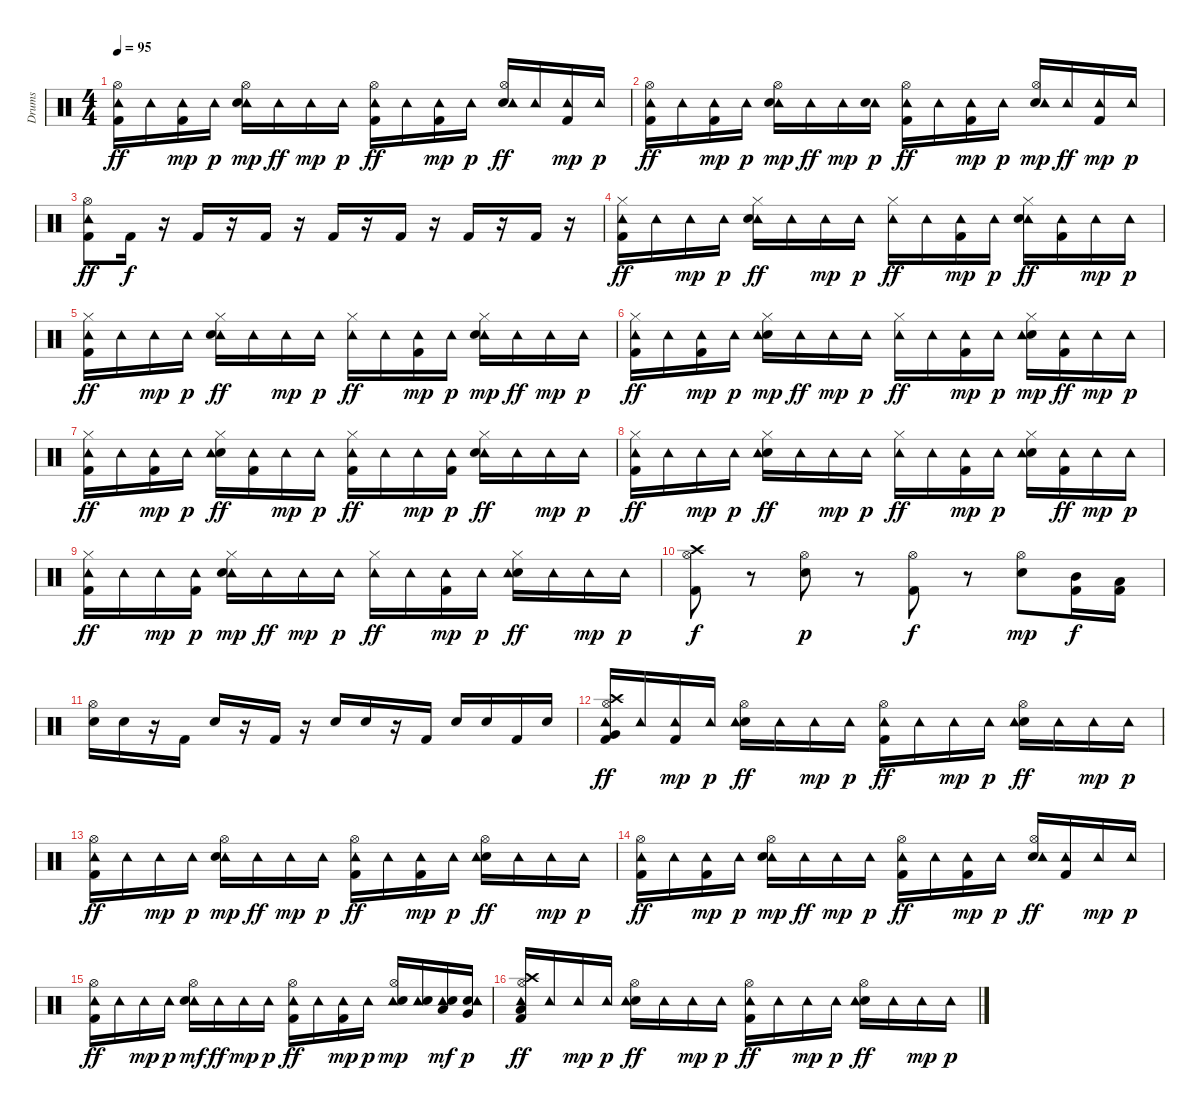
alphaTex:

\track ("Drums" "Drums") {instrument percussion}
\staff {score}
\articulation defaults
\ts (4 4)
\tempo 95
\clef neutral
\ks c
("Kick (hit) 2" "Tambourine (hit)" "Hi-Hat (open)").16{dy ff} "Tambourine (hit)".16 ("Tambourine (hit)" "Kick (hit) 2").16{dy mp} "Tambourine (hit)".16{dy p} ("Tambourine (hit)" "Hi-Hat (open)" "Snare (hit) 2").16{dy mp} "Tambourine (hit)".16{dy ff} "Tambourine (hit)".16{dy mp} "Tambourine (hit)".16{dy p} ("Tambourine (hit)" "Hi-Hat (open)" "Kick (hit) 2").16{dy ff} "Tambourine (hit)".16 ("Kick (hit) 2" "Tambourine (hit)").16{dy mp} "Tambourine (hit)".16{dy p} ("Snare (hit) 2" "Hi-Hat (open)" "Tambourine (hit)").16{dy ff} "Tambourine (hit)".16 ("Tambourine (hit)" "Kick (hit) 2").16{dy mp} "Tambourine (hit)".16{dy p} |
("Kick (hit) 2" "Hi-Hat (open)" "Tambourine (hit)").16{dy ff} "Tambourine (hit)".16 ("Kick (hit) 2" "Tambourine (hit)").16{dy mp} "Tambourine (hit)".16{dy p} ("Tambourine (hit)" "Hi-Hat (open)" "Snare (hit) 2").16{dy mp} "Tambourine (hit)".16{dy ff} "Tambourine (hit)".16{dy mp} ("Tambourine (hit)" "Snare (hit) 2").16{dy p} ("Hi-Hat (open)" "Tambourine (hit)" "Kick (hit) 2").16{dy ff} "Tambourine (hit)".16 ("Kick (hit) 2" "Tambourine (hit)").16{dy mp} "Tambourine (hit)".16{dy p} ("Snare (hit) 2" "Tambourine (hit)" "Hi-Hat (open)").16{dy mp} "Tambourine (hit)".16{dy ff} ("Tambourine (hit)" "Kick (hit) 2").16{dy mp} "Tambourine (hit)".16{dy p} |
("Kick (hit) 2" "Tambourine (hit)" "Hi-Hat (open)").8{dy ff} "Kick (hit) 2".16{dy f} r.16 "Kick (hit) 2".16 r.16 "Kick (hit) 2".16 r.16 "Kick (hit) 2".16 r.16 "Kick (hit) 2".16 r.16 "Kick (hit) 2".16 r.16 "Kick (hit) 2".16 r.16 |
("Kick (hit) 2" "Hi-Hat (closed)" "Tambourine (hit)").16{dy ff} "Tambourine (hit)".16 "Tambourine (hit)".16{dy mp} "Tambourine (hit)".16{dy p} ("Hi-Hat (closed)" "Tambourine (hit)" "Snare (hit) 2").16{dy ff} "Tambourine (hit)".16 "Tambourine (hit)".16{dy mp} "Tambourine (hit)".16{dy p} ("Hi-Hat (closed)" "Tambourine (hit)").16{dy ff} "Tambourine (hit)".16 ("Tambourine (hit)" "Kick (hit) 2").16{dy mp} "Tambourine (hit)".16{dy p} ("Hi-Hat (closed)" "Tambourine (hit)" "Snare (hit) 2").16{dy ff} ("Tambourine (hit)" "Kick (hit) 2").16 "Tambourine (hit)".16{dy mp} "Tambourine (hit)".16{dy p} |
("Tambourine (hit)" "Hi-Hat (closed)" "Kick (hit) 2").16{dy ff} "Tambourine (hit)".16 "Tambourine (hit)".16{dy mp} "Tambourine (hit)".16{dy p} ("Hi-Hat (closed)" "Tambourine (hit)" "Snare (hit) 2").16{dy ff} "Tambourine (hit)".16 "Tambourine (hit)".16{dy mp} "Tambourine (hit)".16{dy p} ("Tambourine (hit)" "Hi-Hat (closed)").16{dy ff} "Tambourine (hit)".16 ("Kick (hit) 2" "Tambourine (hit)").16{dy mp} "Tambourine (hit)".16{dy p} ("Tambourine (hit)" "Hi-Hat (closed)" "Snare (hit) 2").16{dy mp} "Tambourine (hit)".16{dy ff} "Tambourine (hit)".16{dy mp} "Tambourine (hit)".16{dy p} |
("Hi-Hat (closed)" "Tambourine (hit)" "Kick (hit) 2").16{dy ff} "Tambourine (hit)".16 ("Tambourine (hit)" "Kick (hit) 2").16{dy mp} "Tambourine (hit)".16{dy p} ("Snare (hit) 2" "Tambourine (hit)" "Hi-Hat (closed)").16{dy mp} "Tambourine (hit)".16{dy ff} "Tambourine (hit)".16{dy mp} "Tambourine (hit)".16{dy p} ("Hi-Hat (closed)" "Tambourine (hit)").16{dy ff} "Tambourine (hit)".16 ("Kick (hit) 2" "Tambourine (hit)").16{dy mp} "Tambourine (hit)".16{dy p} ("Snare (hit) 2" "Tambourine (hit)" "Hi-Hat (closed)").16{dy mp} ("Kick (hit) 2" "Tambourine (hit)").16{dy ff} "Tambourine (hit)".16{dy mp} "Tambourine (hit)".16{dy p} |
("Hi-Hat (closed)" "Tambourine (hit)" "Kick (hit) 2").16{dy ff} "Tambourine (hit)".16 ("Kick (hit) 2" "Tambourine (hit)").16{dy mp} "Tambourine (hit)".16{dy p} ("Snare (hit) 2" "Hi-Hat (closed)" "Tambourine (hit)").16{dy ff} ("Kick (hit) 2" "Tambourine (hit)").16 "Tambourine (hit)".16{dy mp} "Tambourine (hit)".16{dy p} ("Tambourine (hit)" "Hi-Hat (closed)" "Kick (hit) 2").16{dy ff} "Tambourine (hit)".16 "Tambourine (hit)".16{dy mp} ("Tambourine (hit)" "Kick (hit) 2").16{dy p} ("Hi-Hat (closed)" "Tambourine (hit)" "Snare (hit) 2").16{dy ff} "Tambourine (hit)".16 "Tambourine (hit)".16{dy mp} "Tambourine (hit)".16{dy p} |
("Kick (hit) 2" "Tambourine (hit)" "Hi-Hat (closed)").16{dy ff} "Tambourine (hit)".16 "Tambourine (hit)".16{dy mp} "Tambourine (hit)".16{dy p} ("Snare (hit) 2" "Hi-Hat (closed)" "Tambourine (hit)").16{dy ff} "Tambourine (hit)".16 "Tambourine (hit)".16{dy mp} "Tambourine (hit)".16{dy p} ("Tambourine (hit)" "Hi-Hat (closed)").16{dy ff} "Tambourine (hit)".16 ("Kick (hit) 2" "Tambourine (hit)").16{dy mp} "Tambourine (hit)".16{dy p} ("Snare (hit) 2" "Tambourine (hit)" "Hi-Hat (closed)").16 ("Kick (hit) 2" "Tambourine (hit)").16{dy ff} "Tambourine (hit)".16{dy mp} "Tambourine (hit)".16{dy p} |
("Kick (hit) 2" "Hi-Hat (closed)" "Tambourine (hit)").16{dy ff} "Tambourine (hit)".16 "Tambourine (hit)".16{dy mp} ("Tambourine (hit)" "Kick (hit) 2").16{dy p} ("Tambourine (hit)" "Hi-Hat (closed)" "Snare (hit) 2").16{dy mp} "Tambourine (hit)".16{dy ff} "Tambourine (hit)".16{dy mp} "Tambourine (hit)".16{dy p} ("Tambourine (hit)" "Hi-Hat (closed)").16{dy ff} "Tambourine (hit)".16 ("Tambourine (hit)" "Kick (hit) 2").16{dy mp} "Tambourine (hit)".16{dy p} ("Snare (hit) 2" "Hi-Hat (closed)" "Tambourine (hit)").16{dy ff} "Tambourine (hit)".16 "Tambourine (hit)".16{dy mp} "Tambourine (hit)".16{dy p} |
("Kick (hit) 2" "Crash high (hit)" "Hi-Hat (open)").8{dy f} r.8 ("Hi-Hat (open)" "Snare (hit) 2").8{dy p} r.8 ("Hi-Hat (open)" "Kick (hit) 2").8{dy f} r.8 ("Snare (hit) 2" "Hi-Hat (open)").8{dy mp} ("Kick (hit) 2" "Mid Tom (hit)").16{dy f} ("Low Tom (hit)" "Kick (hit) 2").16 |
("Hi-Hat (open)" "Snare (hit) 2").16 "Snare (hit) 2".16 r.16 "Kick (hit) 2".16 "Snare (hit) 2".16 r.16 "Kick (hit) 2".16 r.16 "Snare (hit) 2".16 "Snare (hit) 2".16 r.16 "Kick (hit) 2".16 "Snare (hit) 2".16 "Snare (hit) 2".16 "Kick (hit) 2".16 "Snare (hit) 2".16 |
("Kick (hit) 2" "Very Low Tom (hit)" "Tambourine (hit)" "Crash high (hit)" "Hi-Hat (open)").16{dy ff} "Tambourine (hit)".16 ("Kick (hit) 2" "Tambourine (hit)").16{dy mp} "Tambourine (hit)".16{dy p} ("Hi-Hat (open)" "Snare (hit) 2" "Tambourine (hit)").16{dy ff} "Tambourine (hit)".16 "Tambourine (hit)".16{dy mp} "Tambourine (hit)".16{dy p} ("Kick (hit) 2" "Hi-Hat (open)" "Tambourine (hit)").16{dy ff} "Tambourine (hit)".16 "Tambourine (hit)".16{dy mp} "Tambourine (hit)".16{dy p} ("Hi-Hat (open)" "Snare (hit) 2" "Tambourine (hit)").16{dy ff} "Tambourine (hit)".16 "Tambourine (hit)".16{dy mp} "Tambourine (hit)".16{dy p} |
("Kick (hit) 2" "Hi-Hat (open)" "Tambourine (hit)").16{dy ff} "Tambourine (hit)".16 "Tambourine (hit)".16{dy mp} "Tambourine (hit)".16{dy p} ("Tambourine (hit)" "Snare (hit) 2" "Hi-Hat (open)").16{dy mp} "Tambourine (hit)".16{dy ff} "Tambourine (hit)".16{dy mp} "Tambourine (hit)".16{dy p} ("Tambourine (hit)" "Hi-Hat (open)" "Kick (hit) 2").16{dy ff} "Tambourine (hit)".16 ("Tambourine (hit)" "Kick (hit) 2").16{dy mp} "Tambourine (hit)".16{dy p} ("Hi-Hat (open)" "Snare (hit) 2" "Tambourine (hit)").16{dy ff} "Tambourine (hit)".16 "Tambourine (hit)".16{dy mp} "Tambourine (hit)".16{dy p} |
("Tambourine (hit)" "Hi-Hat (open)" "Kick (hit) 2").16{dy ff} "Tambourine (hit)".16 ("Tambourine (hit)" "Kick (hit) 2").16{dy mp} "Tambourine (hit)".16{dy p} ("Tambourine (hit)" "Hi-Hat (open)" "Snare (hit) 2").16{dy mp} "Tambourine (hit)".16{dy ff} "Tambourine (hit)".16{dy mp} "Tambourine (hit)".16{dy p} ("Tambourine (hit)" "Kick (hit) 2" "Hi-Hat (open)").16{dy ff} "Tambourine (hit)".16 ("Tambourine (hit)" "Kick (hit) 2").16{dy mp} "Tambourine (hit)".16{dy p} ("Hi-Hat (open)" "Snare (hit) 2" "Tambourine (hit)").16{dy ff} ("Kick (hit) 2" "Tambourine (hit)").16 "Tambourine (hit)".16{dy mp} "Tambourine (hit)".16{dy p} |
("Tambourine (hit)" "Hi-Hat (open)" "Kick (hit) 2").16{dy ff} "Tambourine (hit)".16 "Tambourine (hit)".16{dy mp} "Tambourine (hit)".16{dy p} ("Tambourine (hit)" "Snare (hit) 2" "Hi-Hat (open)").16{dy mf} "Tambourine (hit)".16{dy ff} "Tambourine (hit)".16{dy mp} "Tambourine (hit)".16{dy p} ("Tambourine (hit)" "Hi-Hat (open)" "Kick (hit) 2").16{dy ff} "Tambourine (hit)".16 ("Kick (hit) 2" "Tambourine (hit)").16{dy mp} "Tambourine (hit)".16{dy p} ("Tambourine (hit)" "Hi-Hat (open)" "Snare (hit) 2").16{dy mp} ("Tambourine (hit)" "Snare (hit) 2").16 ("Tambourine (hit)" "Snare (hit) 2" "Low Tom (hit)").16{dy mf} ("Very Low Tom (hit)" "Snare (hit) 2" "Tambourine (hit)").16{dy p} |
("Low Floor Tom (hit)" "Kick (hit) 2" "Hi-Hat (open)" "Crash high (hit)" "Tambourine (hit)").16{dy ff} "Tambourine (hit)".16 "Tambourine (hit)".16{dy mp} "Tambourine (hit)".16{dy p} ("Hi-Hat (open)" "Snare (hit) 2" "Tambourine (hit)").16{dy ff} "Tambourine (hit)".16 "Tambourine (hit)".16{dy mp} "Tambourine (hit)".16{dy p} ("Tambourine (hit)" "Kick (hit) 2" "Hi-Hat (open)").16{dy ff} "Tambourine (hit)".16 "Tambourine (hit)".16{dy mp} "Tambourine (hit)".16{dy p} ("Snare (hit) 2" "Hi-Hat (open)" "Tambourine (hit)").16{dy ff} "Tambourine (hit)".16 "Tambourine (hit)".16{dy mp} "Tambourine (hit)".16{dy p}
